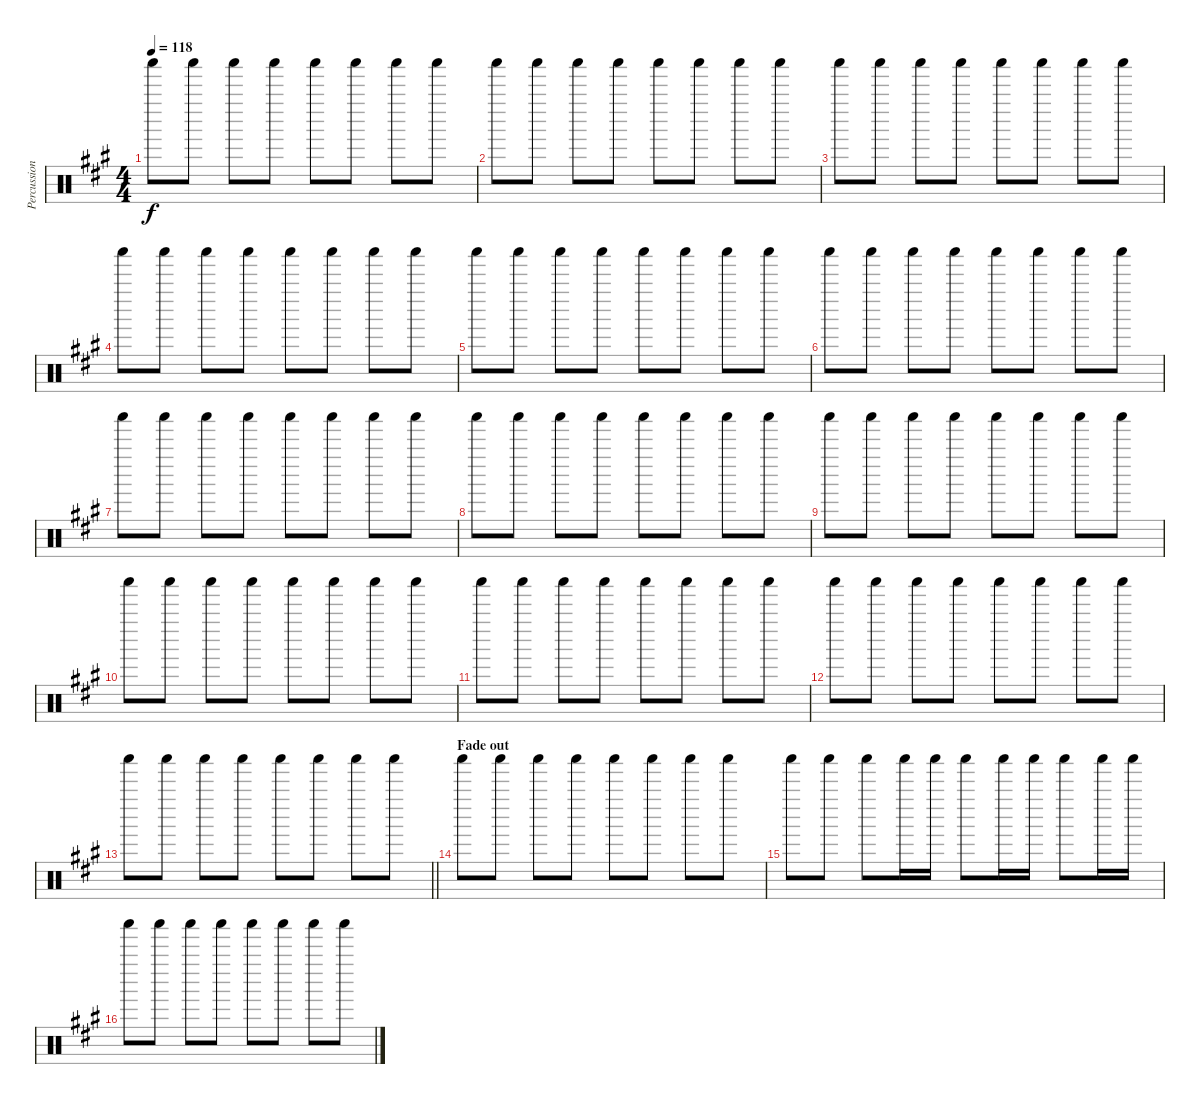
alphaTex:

\track ("Percussions" "Percussion") {instrument percussion}
\staff {score}
\articulation defaults
\ts (4 4)
\tempo 118
\clef neutral
\ks f#minor "Shaker (hit)".8{dy f} "Shaker (hit)".8 "Shaker (hit)".8 "Shaker (hit)".8 "Shaker (hit)".8 "Shaker (hit)".8 "Shaker (hit)".8 "Shaker (hit)".8
|
"Shaker (hit)".8 "Shaker (hit)".8 "Shaker (hit)".8 "Shaker (hit)".8 "Shaker (hit)".8 "Shaker (hit)".8 "Shaker (hit)".8 "Shaker (hit)".8 |
"Shaker (hit)".8 "Shaker (hit)".8 "Shaker (hit)".8 "Shaker (hit)".8 "Shaker (hit)".8 "Shaker (hit)".8 "Shaker (hit)".8 "Shaker (hit)".8 |
"Shaker (hit)".8 "Shaker (hit)".8 "Shaker (hit)".8 "Shaker (hit)".8 "Shaker (hit)".8 "Shaker (hit)".8 "Shaker (hit)".8 "Shaker (hit)".8 |
"Shaker (hit)".8 "Shaker (hit)".8 "Shaker (hit)".8 "Shaker (hit)".8 "Shaker (hit)".8 "Shaker (hit)".8 "Shaker (hit)".8 "Shaker (hit)".8 |
"Shaker (hit)".8 "Shaker (hit)".8 "Shaker (hit)".8 "Shaker (hit)".8 "Shaker (hit)".8 "Shaker (hit)".8 "Shaker (hit)".8 "Shaker (hit)".8 |
"Shaker (hit)".8 "Shaker (hit)".8 "Shaker (hit)".8 "Shaker (hit)".8 "Shaker (hit)".8 "Shaker (hit)".8 "Shaker (hit)".8 "Shaker (hit)".8 |
"Shaker (hit)".8 "Shaker (hit)".8 "Shaker (hit)".8 "Shaker (hit)".8 "Shaker (hit)".8 "Shaker (hit)".8 "Shaker (hit)".8 "Shaker (hit)".8 |
"Shaker (hit)".8 "Shaker (hit)".8 "Shaker (hit)".8 "Shaker (hit)".8 "Shaker (hit)".8 "Shaker (hit)".8 "Shaker (hit)".8 "Shaker (hit)".8 |
"Shaker (hit)".8 "Shaker (hit)".8 "Shaker (hit)".8 "Shaker (hit)".8 "Shaker (hit)".8 "Shaker (hit)".8 "Shaker (hit)".8 "Shaker (hit)".8 |
"Shaker (hit)".8 "Shaker (hit)".8 "Shaker (hit)".8 "Shaker (hit)".8 "Shaker (hit)".8 "Shaker (hit)".8 "Shaker (hit)".8 "Shaker (hit)".8 |
"Shaker (hit)".8 "Shaker (hit)".8 "Shaker (hit)".8 "Shaker (hit)".8 "Shaker (hit)".8 "Shaker (hit)".8 "Shaker (hit)".8 "Shaker (hit)".8 |
\barLineRight lightlight "Shaker (hit)".8 "Shaker (hit)".8 "Shaker (hit)".8 "Shaker (hit)".8 "Shaker (hit)".8 "Shaker (hit)".8 "Shaker (hit)".8 "Shaker (hit)".8
|
\section ("" "Fade out")
"Shaker (hit)".8 "Shaker (hit)".8 "Shaker (hit)".8 "Shaker (hit)".8 "Shaker (hit)".8 "Shaker (hit)".8 "Shaker (hit)".8 "Shaker (hit)".8 |
"Shaker (hit)".8 "Shaker (hit)".8 "Shaker (hit)".8 "Shaker (hit)".16 "Shaker (hit)".16 "Shaker (hit)".8 "Shaker (hit)".16 "Shaker (hit)".16 "Shaker (hit)".8 "Shaker (hit)".16 "Shaker (hit)".16 |
"Shaker (hit)".8 "Shaker (hit)".8 "Shaker (hit)".8 "Shaker (hit)".8 "Shaker (hit)".8 "Shaker (hit)".8 "Shaker (hit)".8 "Shaker (hit)".8
